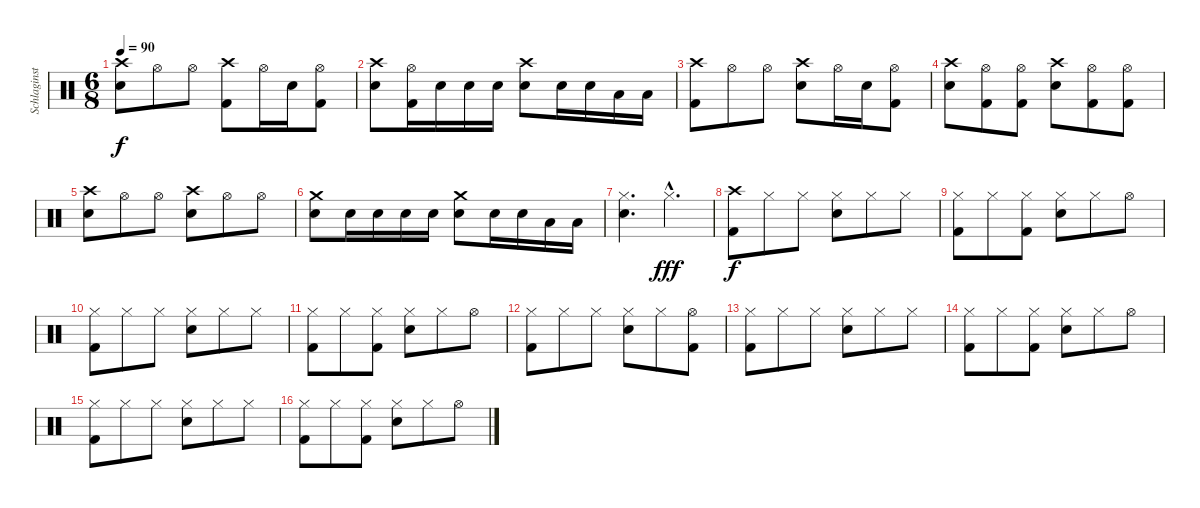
\track ("Schlaginstrumente - Auswahl" "Schlaginst") {instrument percussion}
\staff {score}
\articulation defaults
\ts (6 8)
\tempo 90
\clef neutral
\ks c
("Crash high (hit)" "Snare (hit) 2").8{dy f} "Hi-Hat (open)".8 "Hi-Hat (open)".8 ("Crash high (hit)" "Kick (hit) 2").8 "Hi-Hat (open)".16 "Snare (hit) 2".16 ("Hi-Hat (open)" "Kick (hit) 2").8 |
("Crash high (hit)" "Snare (hit) 2").8 ("Hi-Hat (open)" "Kick (hit) 2").16 "Snare (hit) 2".16 "Snare (hit) 2".16 "Snare (hit) 2".16 ("Crash high (hit)" "Snare (hit) 2").8 "Snare (hit) 2".16 "Snare (hit) 2".16 "Low Tom (hit)".16 "Low Tom (hit)".16 |
("Crash high (hit)" "Kick (hit) 2").8 "Hi-Hat (open)".8 "Hi-Hat (open)".8 ("Crash high (hit)" "Snare (hit) 2").8 "Hi-Hat (open)".16 "Snare (hit) 2".16 ("Hi-Hat (open)" "Kick (hit) 2").8 |
("Crash high (hit)" "Snare (hit) 2").8 ("Hi-Hat (open)" "Kick (hit) 2").8 ("Hi-Hat (open)" "Kick (hit) 2").8 ("Crash high (hit)" "Snare (hit) 2").8 ("Hi-Hat (open)" "Kick (hit) 2").8 ("Hi-Hat (open)" "Kick (hit) 2").8 |
("Crash high (hit)" "Snare (hit) 2").8 "Hi-Hat (open)".8 "Hi-Hat (open)".8 ("Crash high (hit)" "Snare (hit) 2").8 "Hi-Hat (open)".8 "Hi-Hat (open)".8 |
("Crash medium (hit)" "Snare (hit) 2").8 "Snare (hit) 2".16 "Snare (hit) 2".16 "Snare (hit) 2".16 "Snare (hit) 2".16 ("Crash medium (hit)" "Snare (hit) 2").8 "Snare (hit) 2".16 "Snare (hit) 2".16 "Low Tom (hit)".16 "Low Tom (hit)".16 |
("Hi-Hat (closed)" "Snare (hit) 2").4{d} "Hi-Hat (closed)"{hac}.4{d dy fff} |
("Crash high (hit)" "Kick (hit) 2").8{dy f} "Hi-Hat (closed)".8 "Hi-Hat (closed)".8 ("Hi-Hat (closed)" "Snare (hit) 2").8 "Hi-Hat (closed)".8 "Hi-Hat (closed)".8 |
("Hi-Hat (closed)" "Kick (hit) 2").8 "Hi-Hat (closed)".8 ("Hi-Hat (closed)" "Kick (hit) 2").8 ("Hi-Hat (closed)" "Snare (hit) 2").8 "Hi-Hat (closed)".8 "Hi-Hat (open)".8 |
("Hi-Hat (closed)" "Kick (hit) 2").8 "Hi-Hat (closed)".8 "Hi-Hat (closed)".8 ("Hi-Hat (closed)" "Snare (hit) 2").8 "Hi-Hat (closed)".8 "Hi-Hat (closed)".8 |
("Hi-Hat (closed)" "Kick (hit) 2").8 "Hi-Hat (closed)".8 ("Hi-Hat (closed)" "Kick (hit) 2").8 ("Hi-Hat (closed)" "Snare (hit) 2").8 "Hi-Hat (closed)".8 "Hi-Hat (open)".8 |
("Hi-Hat (closed)" "Kick (hit) 2").8 "Hi-Hat (closed)".8 "Hi-Hat (closed)".8 ("Hi-Hat (closed)" "Snare (hit) 2").8 "Hi-Hat (closed)".8 ("Hi-Hat (open)" "Kick (hit) 2").8 |
("Hi-Hat (closed)" "Kick (hit) 2").8 "Hi-Hat (closed)".8 "Hi-Hat (closed)".8 ("Hi-Hat (closed)" "Snare (hit) 2").8 "Hi-Hat (closed)".8 "Hi-Hat (closed)".8 |
("Hi-Hat (closed)" "Kick (hit) 2").8 "Hi-Hat (closed)".8 ("Hi-Hat (closed)" "Kick (hit) 2").8 ("Hi-Hat (closed)" "Snare (hit) 2").8 "Hi-Hat (closed)".8 "Hi-Hat (open)".8 |
("Hi-Hat (closed)" "Kick (hit) 2").8 "Hi-Hat (closed)".8 "Hi-Hat (closed)".8 ("Hi-Hat (closed)" "Snare (hit) 2").8 "Hi-Hat (closed)".8 "Hi-Hat (closed)".8 |
("Hi-Hat (closed)" "Kick (hit) 2").8 "Hi-Hat (closed)".8 ("Hi-Hat (closed)" "Kick (hit) 2").8 ("Hi-Hat (closed)" "Snare (hit) 2").8 "Hi-Hat (closed)".8 "Hi-Hat (open)".8
